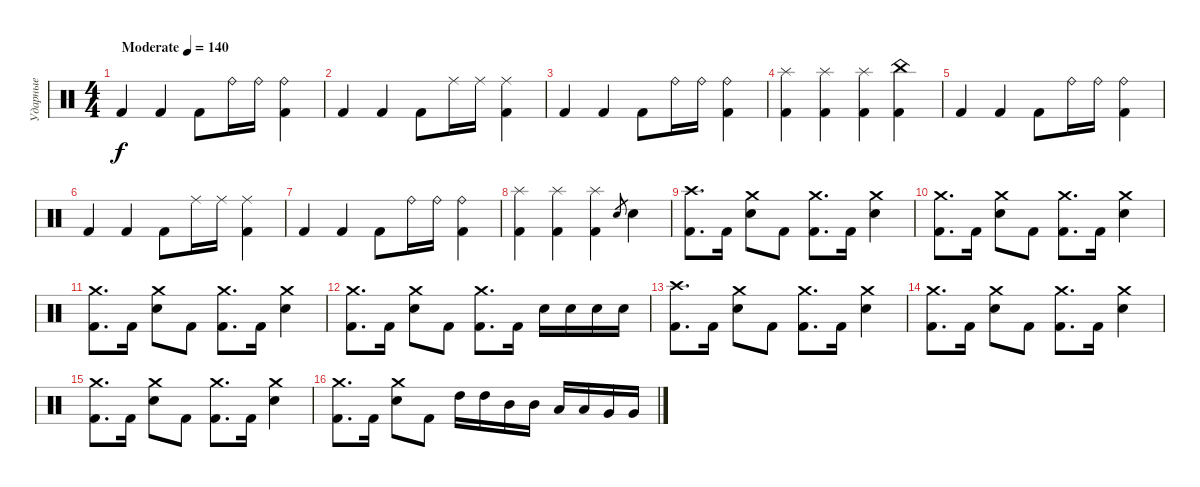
\track ("Ударные" "Ударные") {instrument percussion}
\staff {score}
\articulation defaults
\ts (4 4)
\tempo (140 "Moderate")
\clef neutral
\ks c "Kick (hit) 2".4{dy f} "Kick (hit) 2".4 "Kick (hit) 2".8 "Ride (bell)".16 "Ride (bell)".16
("Ride (bell)" "Kick (hit) 2").4 |
"Kick (hit) 2".4 "Kick (hit) 2".4 "Kick (hit) 2".8 "Ride (middle)".16 "Ride (middle)".16 ("Ride (middle)" "Kick (hit) 2").4 |
"Kick (hit) 2".4 "Kick (hit) 2".4 "Kick (hit) 2".8 "Ride (bell)".16 "Ride (bell)".16 ("Ride (bell)" "Kick (hit) 2").4 |
("Splash (hit)" "Kick (hit) 2").4 ("Splash (hit)" "Kick (hit) 2").4 ("Splash (hit)" "Kick (hit) 2").4 ("China (hit)" "Kick (hit) 2").4 |
"Kick (hit) 2".4 "Kick (hit) 2".4 "Kick (hit) 2".8 "Ride (bell)".16 "Ride (bell)".16 ("Ride (bell)" "Kick (hit) 2").4 |
"Kick (hit) 2".4 "Kick (hit) 2".4 "Kick (hit) 2".8 "Ride (middle)".16 "Ride (middle)".16 ("Ride (middle)" "Kick (hit) 2").4 |
"Kick (hit) 2".4 "Kick (hit) 2".4 "Kick (hit) 2".8 "Ride (bell)".16 "Ride (bell)".16 ("Ride (bell)" "Kick (hit) 2").4 |
("Splash (hit)" "Kick (hit) 2").4 ("Splash (hit)" "Kick (hit) 2").4 ("Splash (hit)" "Kick (hit) 2").4 "Electric Snare (hit)".8{gr} "Electric Snare (hit)".4 |
("Crash high (hit)" "Kick (hit) 2").8{d} "Kick (hit) 2".16 ("Crash medium (hit)" "Electric Snare (hit)").8 "Kick (hit) 2".8 ("Crash medium (hit)" "Kick (hit) 2").8{d} "Kick (hit) 2".16 ("Crash medium (hit)" "Electric Snare (hit)").4 |
("Crash medium (hit)" "Kick (hit) 2").8{d} "Kick (hit) 2".16 ("Crash medium (hit)" "Electric Snare (hit)").8 "Kick (hit) 2".8 ("Crash medium (hit)" "Kick (hit) 2").8{d} "Kick (hit) 2".16 ("Crash medium (hit)" "Electric Snare (hit)").4 |
("Crash medium (hit)" "Kick (hit) 2").8{d} "Kick (hit) 2".16 ("Crash medium (hit)" "Electric Snare (hit)").8 "Kick (hit) 2".8 ("Crash medium (hit)" "Kick (hit) 2").8{d} "Kick (hit) 2".16 ("Crash medium (hit)" "Electric Snare (hit)").4 |
("Crash medium (hit)" "Kick (hit) 2").8{d} "Kick (hit) 2".16 ("Crash medium (hit)" "Electric Snare (hit)").8 "Kick (hit) 2".8 ("Crash medium (hit)" "Kick (hit) 2").8{d} "Kick (hit) 2".16 "Electric Snare (hit)".16 "Electric Snare (hit)".16 "Electric Snare (hit)".16 "Electric Snare (hit)".16 |
("Crash high (hit)" "Kick (hit) 2").8{d} "Kick (hit) 2".16 ("Crash medium (hit)" "Electric Snare (hit)").8 "Kick (hit) 2".8 ("Crash medium (hit)" "Kick (hit) 2").8{d} "Kick (hit) 2".16 ("Crash medium (hit)" "Electric Snare (hit)").4 |
("Crash medium (hit)" "Kick (hit) 2").8{d} "Kick (hit) 2".16 ("Crash medium (hit)" "Electric Snare (hit)").8 "Kick (hit) 2".8 ("Crash medium (hit)" "Kick (hit) 2").8{d} "Kick (hit) 2".16 ("Crash medium (hit)" "Electric Snare (hit)").4 |
("Crash medium (hit)" "Kick (hit) 2").8{d} "Kick (hit) 2".16 ("Crash medium (hit)" "Electric Snare (hit)").8 "Kick (hit) 2".8 ("Crash medium (hit)" "Kick (hit) 2").8{d} "Kick (hit) 2".16 ("Crash medium (hit)" "Electric Snare (hit)").4 |
("Crash medium (hit)" "Kick (hit) 2").8{d} "Kick (hit) 2".16 ("Crash medium (hit)" "Electric Snare (hit)").8 "Kick (hit) 2".8 "High Tom (hit)".16 "High Tom (hit)".16 "Mid Tom (hit)".16 "Mid Tom (hit)".16 "Low Tom (hit)".16 "Low Tom (hit)".16 "Very Low Tom (hit)".16 "Very Low Tom (hit)".16
